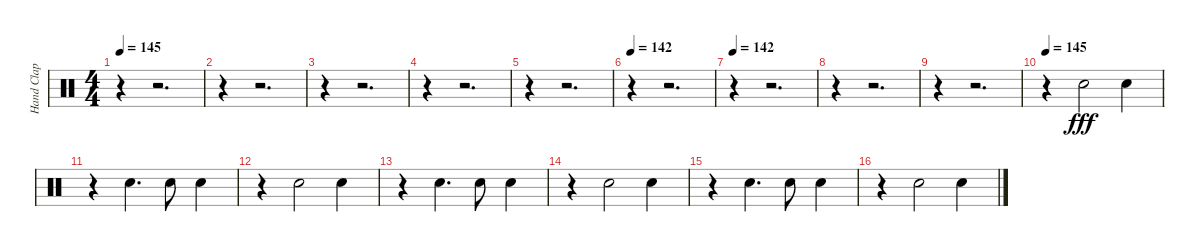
\track ("Hand Clap" "Hand Clap") {instrument percussion}
\staff {score}
\articulation defaults
\ts (4 4)
\tempo 145
\clef neutral
\ks c
r.4{dy fff} r.2{d} |
r.4 r.2{d} |
r.4 r.2{d} |
r.4 r.2{d} |
r.4 r.2{d} |
\tempo 142
r.4 r.2{d} |
\tempo 142
r.4 r.2{d} |
r.4 r.2{d} |
r.4 r.2{d} |
\tempo 145
r.4 "Hand Clap (hit)".2 "Hand Clap (hit)".4 |
r.4 "Hand Clap (hit)".4{d} "Hand Clap (hit)".8 "Hand Clap (hit)".4 |
r.4 "Hand Clap (hit)".2 "Hand Clap (hit)".4 |
r.4 "Hand Clap (hit)".4{d} "Hand Clap (hit)".8 "Hand Clap (hit)".4 |
r.4 "Hand Clap (hit)".2 "Hand Clap (hit)".4 |
r.4 "Hand Clap (hit)".4{d} "Hand Clap (hit)".8 "Hand Clap (hit)".4 |
r.4 "Hand Clap (hit)".2 "Hand Clap (hit)".4
